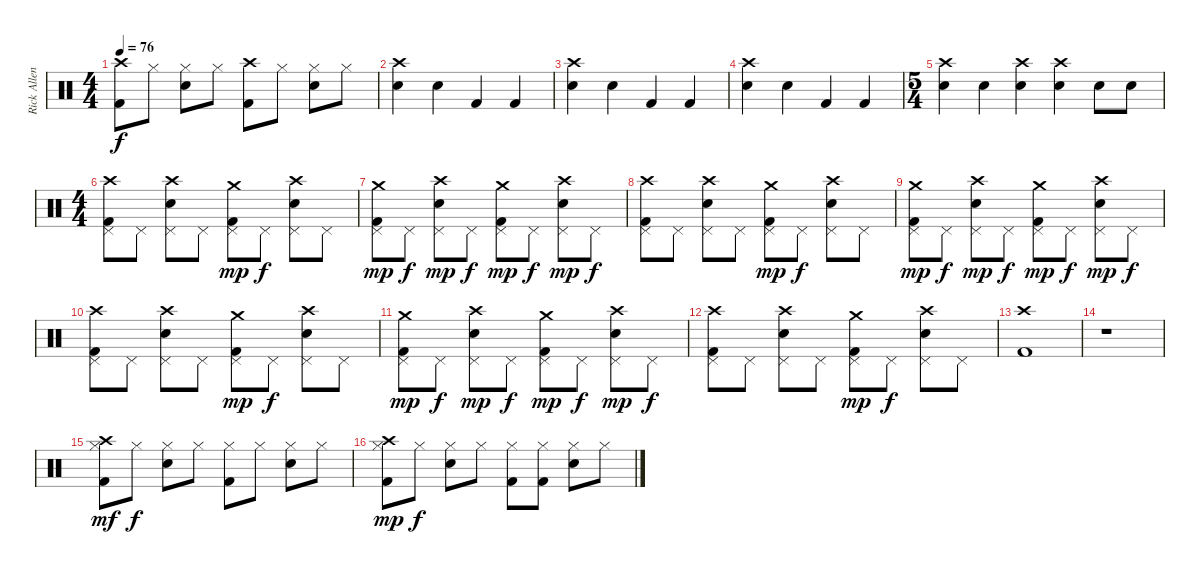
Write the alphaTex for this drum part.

\track ("Rick Allen" "Rick Allen") {instrument percussion}
\staff {score}
\articulation defaults
\ts (4 4)
\tempo 76
\clef neutral
\ks c
("Crash high (hit)" "Kick (hit) 2").8{dy f} "Hi-Hat (closed)".8 ("Hi-Hat (closed)" "Snare (hit) 2").8 "Hi-Hat (closed)".8 ("Crash high (hit)" "Kick (hit) 2").8 "Hi-Hat (closed)".8 ("Hi-Hat (closed)" "Snare (hit) 2").8 "Hi-Hat (closed)".8 |
("Crash high (hit)" "Snare (hit) 2").4 "Snare (hit) 2".4 "Kick (hit) 2".4 "Kick (hit) 2".4 |
("Crash high (hit)" "Snare (hit) 2").4 "Snare (hit) 2".4 "Kick (hit) 2".4 "Kick (hit) 2".4 |
("Crash high (hit)" "Snare (hit) 2").4 "Snare (hit) 2".4 "Kick (hit) 2".4 "Kick (hit) 2".4 |
\ts (5 4)
("Crash high (hit)" "Snare (hit) 2").4 "Snare (hit) 2".4 ("Crash high (hit)" "Snare (hit) 2").4 ("Crash high (hit)" "Snare (hit) 2").4 "Snare (hit) 2".8 "Snare (hit) 2".8 |
\ts (4 4)
("Crash high (hit)" "Pedal Hi-Hat (hit)" "Kick (hit) 2").8 "Pedal Hi-Hat (hit)".8 ("Crash high (hit)" "Pedal Hi-Hat (hit)" "Snare (hit) 2").8 "Pedal Hi-Hat (hit)".8 ("Crash medium (hit)" "Pedal Hi-Hat (hit)" "Kick (hit) 2").8{dy mp} "Pedal Hi-Hat (hit)".8{dy f} ("Crash high (hit)" "Pedal Hi-Hat (hit)" "Snare (hit) 2").8 "Pedal Hi-Hat (hit)".8 |
("Crash medium (hit)" "Pedal Hi-Hat (hit)" "Kick (hit) 2").8{dy mp} "Pedal Hi-Hat (hit)".8{dy f} ("Crash high (hit)" "Pedal Hi-Hat (hit)" "Snare (hit) 2").8{dy mp} "Pedal Hi-Hat (hit)".8{dy f} ("Crash medium (hit)" "Pedal Hi-Hat (hit)" "Kick (hit) 2").8{dy mp} "Pedal Hi-Hat (hit)".8{dy f} ("Crash high (hit)" "Pedal Hi-Hat (hit)" "Snare (hit) 2").8{dy mp} "Pedal Hi-Hat (hit)".8{dy f} |
("Crash high (hit)" "Pedal Hi-Hat (hit)" "Kick (hit) 2").8 "Pedal Hi-Hat (hit)".8 ("Crash high (hit)" "Pedal Hi-Hat (hit)" "Snare (hit) 2").8 "Pedal Hi-Hat (hit)".8 ("Crash medium (hit)" "Pedal Hi-Hat (hit)" "Kick (hit) 2").8{dy mp} "Pedal Hi-Hat (hit)".8{dy f} ("Crash high (hit)" "Pedal Hi-Hat (hit)" "Snare (hit) 2").8 "Pedal Hi-Hat (hit)".8 |
("Crash medium (hit)" "Pedal Hi-Hat (hit)" "Kick (hit) 2").8{dy mp} "Pedal Hi-Hat (hit)".8{dy f} ("Crash high (hit)" "Pedal Hi-Hat (hit)" "Snare (hit) 2").8{dy mp} "Pedal Hi-Hat (hit)".8{dy f} ("Crash medium (hit)" "Pedal Hi-Hat (hit)" "Kick (hit) 2").8{dy mp} "Pedal Hi-Hat (hit)".8{dy f} ("Crash high (hit)" "Pedal Hi-Hat (hit)" "Snare (hit) 2").8{dy mp} "Pedal Hi-Hat (hit)".8{dy f} |
("Crash high (hit)" "Pedal Hi-Hat (hit)" "Kick (hit) 2").8 "Pedal Hi-Hat (hit)".8 ("Crash high (hit)" "Pedal Hi-Hat (hit)" "Snare (hit) 2").8 "Pedal Hi-Hat (hit)".8 ("Crash medium (hit)" "Pedal Hi-Hat (hit)" "Kick (hit) 2").8{dy mp} "Pedal Hi-Hat (hit)".8{dy f} ("Crash high (hit)" "Pedal Hi-Hat (hit)" "Snare (hit) 2").8 "Pedal Hi-Hat (hit)".8 |
("Crash medium (hit)" "Pedal Hi-Hat (hit)" "Kick (hit) 2").8{dy mp} "Pedal Hi-Hat (hit)".8{dy f} ("Crash high (hit)" "Pedal Hi-Hat (hit)" "Snare (hit) 2").8{dy mp} "Pedal Hi-Hat (hit)".8{dy f} ("Crash medium (hit)" "Pedal Hi-Hat (hit)" "Kick (hit) 2").8{dy mp} "Pedal Hi-Hat (hit)".8{dy f} ("Crash high (hit)" "Pedal Hi-Hat (hit)" "Snare (hit) 2").8{dy mp} "Pedal Hi-Hat (hit)".8{dy f} |
("Crash high (hit)" "Pedal Hi-Hat (hit)" "Kick (hit) 2").8 "Pedal Hi-Hat (hit)".8 ("Crash high (hit)" "Pedal Hi-Hat (hit)" "Snare (hit) 2").8 "Pedal Hi-Hat (hit)".8 ("Crash medium (hit)" "Pedal Hi-Hat (hit)" "Kick (hit) 2").8{dy mp} "Pedal Hi-Hat (hit)".8{dy f} ("Crash high (hit)" "Pedal Hi-Hat (hit)" "Snare (hit) 2").8 "Pedal Hi-Hat (hit)".8 |
("Crash high (hit)" "Kick (hit) 2").1 |
r.1 |
("Crash high (hit)" "Hi-Hat (closed)" "Kick (hit) 2").8{dy mf} "Hi-Hat (closed)".8{dy f} ("Hi-Hat (closed)" "Snare (hit) 2").8 "Hi-Hat (closed)".8 ("Hi-Hat (closed)" "Kick (hit) 2").8 "Hi-Hat (closed)".8 ("Hi-Hat (closed)" "Snare (hit) 2").8 "Hi-Hat (closed)".8 |
("Crash high (hit)" "Hi-Hat (closed)" "Kick (hit) 2").8{dy mp} "Hi-Hat (closed)".8{dy f} ("Hi-Hat (closed)" "Snare (hit) 2").8 "Hi-Hat (closed)".8 ("Hi-Hat (closed)" "Kick (hit) 2").8 ("Hi-Hat (closed)" "Kick (hit) 2").8 ("Hi-Hat (closed)" "Snare (hit) 2").8 "Hi-Hat (closed)".8
